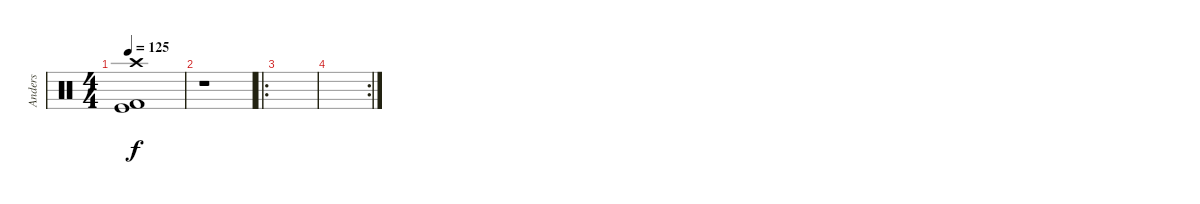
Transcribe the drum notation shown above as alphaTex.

\track ("Anders" "Anders") {instrument percussion}
\staff {score}
\articulation defaults
\ts (4 4)
\tempo 125
\clef neutral
\ks c
("Crash high (hit)" "Kick (hit) 2" "Kick (hit)").1{dy f} |
r.1 |
\ro
|
\rc 2
